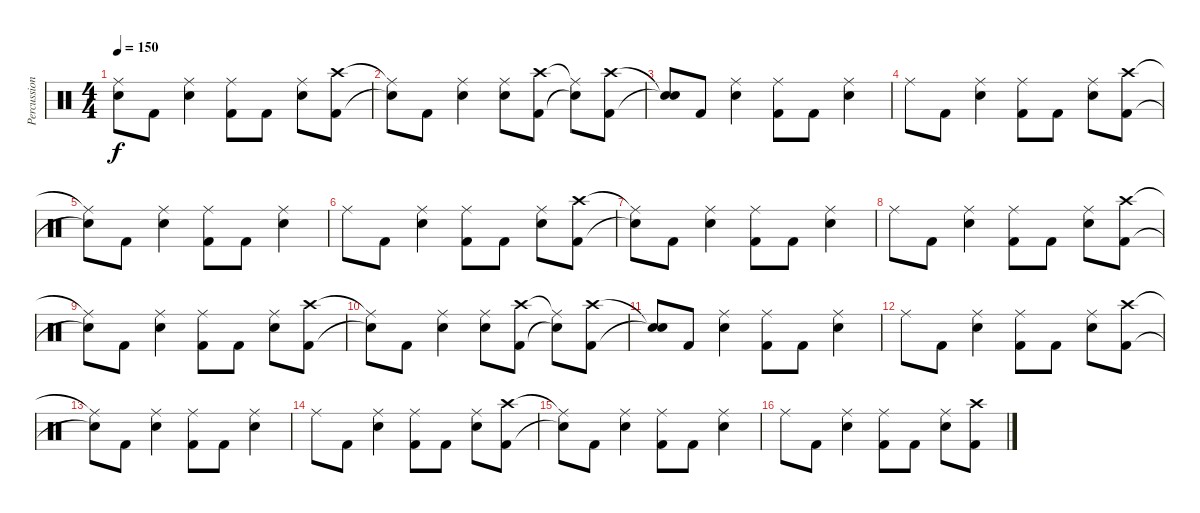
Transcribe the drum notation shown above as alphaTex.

\track ("Percussion" "Percussion") {instrument percussion}
\staff {score}
\articulation defaults
\ts (4 4)
\tempo 150
\clef neutral
\ks c
("Ride (middle)"{t} "Snare (hit)"{t}).8{dy f} "Kick (hit) 2".8 ("Ride (middle)" "Snare (hit) 2").4 ("Ride (middle)" "Kick (hit) 2").8 "Kick (hit) 2".8 ("Ride (middle)" "Snare (hit) 2").8 ("Crash high (hit)" "Kick (hit) 2").8 |
("Ride (middle)"{t} "Snare (hit)"{t}).8 "Kick (hit) 2".8 ("Ride (middle)" "Snare (hit) 2").4 ("Ride (middle)" "Snare (hit) 2").8 ("Crash high (hit)" "Kick (hit) 2").8 ("Ride (middle)"{t} "Snare (hit)"{t}).8 ("Crash high (hit)" "Kick (hit) 2").8 |
("Snare (hit)"{t} "Snare (hit)"{t}).8 "Kick (hit) 2".8 ("Ride (middle)" "Snare (hit) 2").4 ("Ride (middle)" "Kick (hit) 2").8 "Kick (hit) 2".8 ("Ride (middle)" "Snare (hit) 2").4 |
"Ride (middle)".8 "Kick (hit) 2".8 ("Ride (middle)" "Snare (hit) 2").4 ("Ride (middle)" "Kick (hit) 2").8 "Kick (hit) 2".8 ("Ride (middle)" "Snare (hit) 2").8 ("Crash high (hit)" "Kick (hit) 2").8 |
("Ride (middle)"{t} "Snare (hit)"{t}).8 "Kick (hit) 2".8 ("Ride (middle)" "Snare (hit) 2").4 ("Ride (middle)" "Kick (hit) 2").8 "Kick (hit) 2".8 ("Ride (middle)" "Snare (hit) 2").4 |
"Ride (middle)".8 "Kick (hit) 2".8 ("Ride (middle)" "Snare (hit) 2").4 ("Ride (middle)" "Kick (hit) 2").8 "Kick (hit) 2".8 ("Ride (middle)" "Snare (hit) 2").8 ("Crash high (hit)" "Kick (hit) 2").8 |
("Ride (middle)"{t} "Snare (hit)"{t}).8 "Kick (hit) 2".8 ("Ride (middle)" "Snare (hit) 2").4 ("Ride (middle)" "Kick (hit) 2").8 "Kick (hit) 2".8 ("Ride (middle)" "Snare (hit) 2").4 |
"Ride (middle)".8 "Kick (hit) 2".8 ("Ride (middle)" "Snare (hit) 2").4 ("Ride (middle)" "Kick (hit) 2").8 "Kick (hit) 2".8 ("Ride (middle)" "Snare (hit) 2").8 ("Crash high (hit)" "Kick (hit) 2").8 |
("Ride (middle)"{t} "Snare (hit)"{t}).8 "Kick (hit) 2".8 ("Ride (middle)" "Snare (hit) 2").4 ("Ride (middle)" "Kick (hit) 2").8 "Kick (hit) 2".8 ("Ride (middle)" "Snare (hit) 2").8 ("Crash high (hit)" "Kick (hit) 2").8 |
("Ride (middle)"{t} "Snare (hit)"{t}).8 "Kick (hit) 2".8 ("Ride (middle)" "Snare (hit) 2").4 ("Ride (middle)" "Snare (hit) 2").8 ("Crash high (hit)" "Kick (hit) 2").8 ("Ride (middle)"{t} "Snare (hit)"{t}).8 ("Crash high (hit)" "Kick (hit) 2").8 |
("Snare (hit)"{t} "Snare (hit)"{t}).8 "Kick (hit) 2".8 ("Ride (middle)" "Snare (hit) 2").4 ("Ride (middle)" "Kick (hit) 2").8 "Kick (hit) 2".8 ("Ride (middle)" "Snare (hit) 2").4 |
"Ride (middle)".8 "Kick (hit) 2".8 ("Ride (middle)" "Snare (hit) 2").4 ("Ride (middle)" "Kick (hit) 2").8 "Kick (hit) 2".8 ("Ride (middle)" "Snare (hit) 2").8 ("Crash high (hit)" "Kick (hit) 2").8 |
("Ride (middle)"{t} "Snare (hit)"{t}).8 "Kick (hit) 2".8 ("Ride (middle)" "Snare (hit) 2").4 ("Ride (middle)" "Kick (hit) 2").8 "Kick (hit) 2".8 ("Ride (middle)" "Snare (hit) 2").4 |
"Ride (middle)".8 "Kick (hit) 2".8 ("Ride (middle)" "Snare (hit) 2").4 ("Ride (middle)" "Kick (hit) 2").8 "Kick (hit) 2".8 ("Ride (middle)" "Snare (hit) 2").8 ("Crash high (hit)" "Kick (hit) 2").8 |
("Ride (middle)"{t} "Snare (hit)"{t}).8 "Kick (hit) 2".8 ("Ride (middle)" "Snare (hit) 2").4 ("Ride (middle)" "Kick (hit) 2").8 "Kick (hit) 2".8 ("Ride (middle)" "Snare (hit) 2").4 |
"Ride (middle)".8 "Kick (hit) 2".8 ("Ride (middle)" "Snare (hit) 2").4 ("Ride (middle)" "Kick (hit) 2").8 "Kick (hit) 2".8 ("Ride (middle)" "Snare (hit) 2").8 ("Crash high (hit)" "Kick (hit) 2").8
